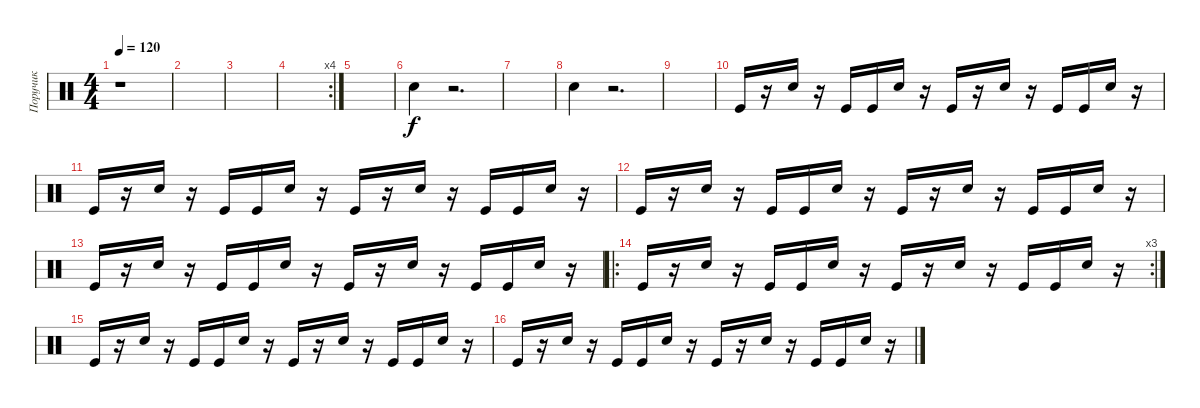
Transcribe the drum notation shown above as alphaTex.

\track ("Поручик" "Поручик") {instrument percussion}
\staff {score}
\articulation defaults
\ts (4 4)
\tempo 120
\clef neutral
\ks c
r.1{dy f} |
|
|
\rc 4
|
|
"Electric Snare (hit)".4 r.2{d} |
|
"Electric Snare (hit)".4 r.2{d} |
|
"Kick (hit)".16 r.16 "Snare (hit) 2".16 r.16 "Kick (hit)".16 "Kick (hit)".16 "Snare (hit) 2".16 r.16 "Kick (hit)".16 r.16 "Snare (hit) 2".16 r.16 "Kick (hit)".16 "Kick (hit)".16 "Snare (hit) 2".16 r.16 |
"Kick (hit)".16 r.16 "Snare (hit) 2".16 r.16 "Kick (hit)".16 "Kick (hit)".16 "Snare (hit) 2".16 r.16 "Kick (hit)".16 r.16 "Snare (hit) 2".16 r.16 "Kick (hit)".16 "Kick (hit)".16 "Snare (hit) 2".16 r.16 |
"Kick (hit)".16 r.16 "Snare (hit) 2".16 r.16 "Kick (hit)".16 "Kick (hit)".16 "Snare (hit) 2".16 r.16 "Kick (hit)".16 r.16 "Snare (hit) 2".16 r.16 "Kick (hit)".16 "Kick (hit)".16 "Snare (hit) 2".16 r.16 |
"Kick (hit)".16 r.16 "Snare (hit) 2".16 r.16 "Kick (hit)".16 "Kick (hit)".16 "Snare (hit) 2".16 r.16 "Kick (hit)".16 r.16 "Snare (hit) 2".16 r.16 "Kick (hit)".16 "Kick (hit)".16 "Snare (hit) 2".16 r.16 |
\ro
\rc 3 "Kick (hit)".16
r.16 "Snare (hit) 2".16 r.16 "Kick (hit)".16 "Kick (hit)".16 "Snare (hit) 2".16 r.16 "Kick (hit)".16 r.16 "Snare (hit) 2".16 r.16 "Kick (hit)".16 "Kick (hit)".16 "Snare (hit) 2".16 r.16 |
"Kick (hit)".16 r.16 "Snare (hit) 2".16 r.16 "Kick (hit)".16 "Kick (hit)".16 "Snare (hit) 2".16 r.16 "Kick (hit)".16 r.16 "Snare (hit) 2".16 r.16 "Kick (hit)".16 "Kick (hit)".16 "Snare (hit) 2".16 r.16 |
"Kick (hit)".16 r.16 "Snare (hit) 2".16 r.16 "Kick (hit)".16 "Kick (hit)".16 "Snare (hit) 2".16 r.16 "Kick (hit)".16 r.16 "Snare (hit) 2".16 r.16 "Kick (hit)".16 "Kick (hit)".16 "Snare (hit) 2".16 r.16
